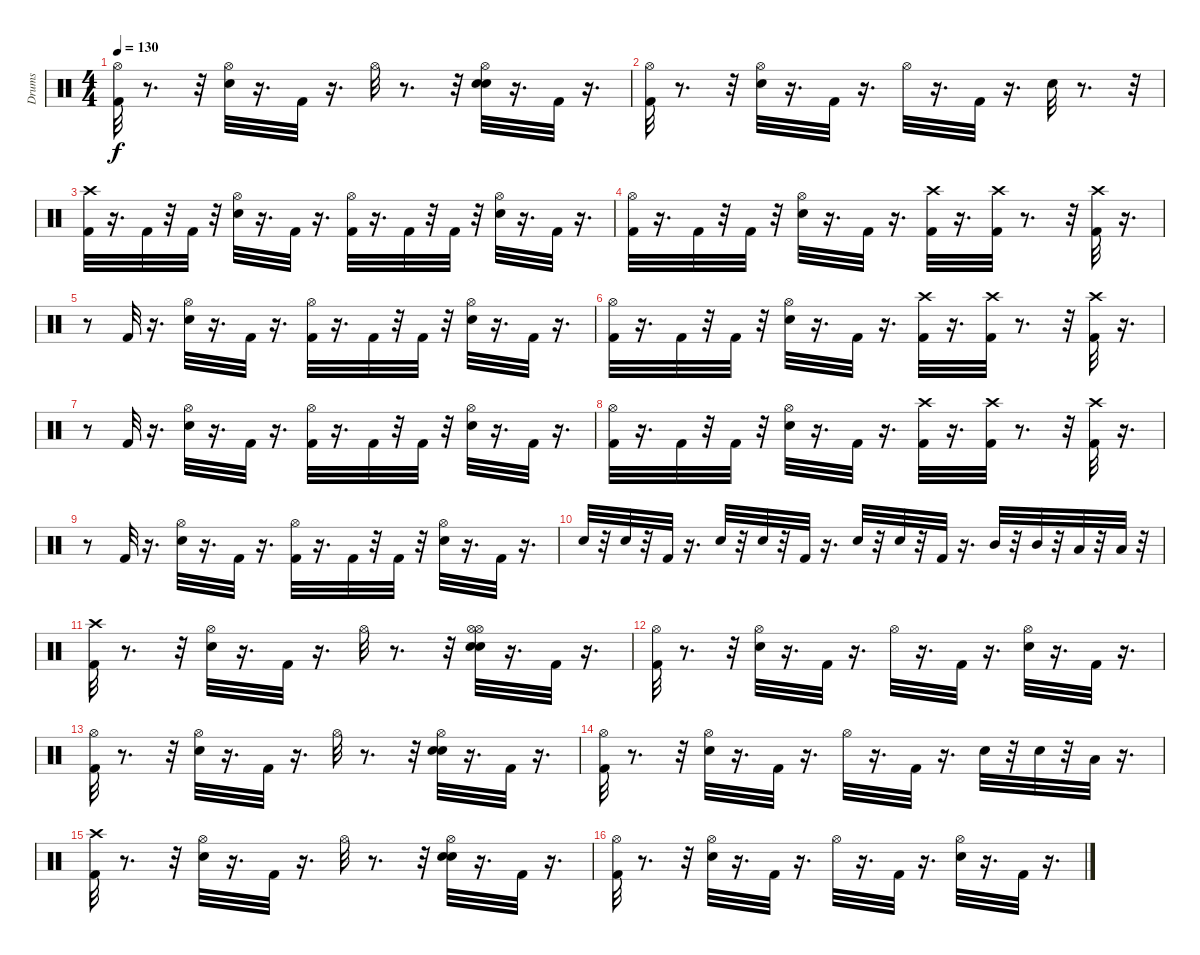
\track ("Drums" "Drums") {instrument percussion}
\staff {score}
\articulation defaults
\ts (4 4)
\tempo 130
\clef neutral
\ks c
("Hi-Hat (open)" "Kick (hit) 2").32{dy f} r.8{d} r.32 ("Snare (hit) 2" "Hi-Hat (open)").32 r.16{d} "Kick (hit) 2".32 r.16{d} "Hi-Hat (open)".32 r.8{d} r.32 ("Snare (hit) 2" "Hi-Hat (open)" "Snare (hit) 2").32 r.16{d} "Kick (hit) 2".32 r.16{d} |
("Hi-Hat (open)" "Kick (hit) 2").32 r.8{d} r.32 ("Snare (hit) 2" "Hi-Hat (open)").32 r.16{d} "Kick (hit) 2".32 r.16{d} "Hi-Hat (open)".32 r.16{d} "Kick (hit) 2".32 r.16{d} "Snare (hit) 2".32 r.8{d} r.32 |
("Kick (hit) 2" "Crash high (hit)").32 r.16{d} "Kick (hit) 2".32 r.32 "Kick (hit) 2".32 r.32 ("Snare (hit) 2" "Hi-Hat (open)").32 r.16{d} "Kick (hit) 2".32 r.16{d} ("Kick (hit) 2" "Hi-Hat (open)").32 r.16{d} "Kick (hit) 2".32 r.32 "Kick (hit) 2".32 r.32 ("Snare (hit) 2" "Hi-Hat (open)").32 r.16{d} "Kick (hit) 2".32 r.16{d} |
("Kick (hit) 2" "Hi-Hat (open)").32 r.16{d} "Kick (hit) 2".32 r.32 "Kick (hit) 2".32 r.32 ("Snare (hit) 2" "Hi-Hat (open)").32 r.16{d} "Kick (hit) 2".32 r.16{d} ("Crash high (hit)" "Kick (hit) 2").32 r.16{d} ("Crash high (hit)" "Kick (hit) 2").32 r.8{d} r.32 ("Kick (hit) 2" "Crash high (hit)").32 r.16{d} |
r.8 "Kick (hit) 2".32 r.16{d} ("Snare (hit) 2" "Hi-Hat (open)").32 r.16{d} "Kick (hit) 2".32 r.16{d} ("Kick (hit) 2" "Hi-Hat (open)").32 r.16{d} "Kick (hit) 2".32 r.32 "Kick (hit) 2".32 r.32 ("Snare (hit) 2" "Hi-Hat (open)").32 r.16{d} "Kick (hit) 2".32 r.16{d} |
("Kick (hit) 2" "Hi-Hat (open)").32 r.16{d} "Kick (hit) 2".32 r.32 "Kick (hit) 2".32 r.32 ("Hi-Hat (open)" "Snare (hit) 2").32 r.16{d} "Kick (hit) 2".32 r.16{d} ("Crash high (hit)" "Kick (hit) 2").32 r.16{d} ("Crash high (hit)" "Kick (hit) 2").32 r.8{d} r.32 ("Kick (hit) 2" "Crash high (hit)").32 r.16{d} |
r.8 "Kick (hit) 2".32 r.16{d} ("Snare (hit) 2" "Hi-Hat (open)").32 r.16{d} "Kick (hit) 2".32 r.16{d} ("Kick (hit) 2" "Hi-Hat (open)").32 r.16{d} "Kick (hit) 2".32 r.32 "Kick (hit) 2".32 r.32 ("Snare (hit) 2" "Hi-Hat (open)").32 r.16{d} "Kick (hit) 2".32 r.16{d} |
("Kick (hit) 2" "Hi-Hat (open)").32 r.16{d} "Kick (hit) 2".32 r.32 "Kick (hit) 2".32 r.32 ("Snare (hit) 2" "Hi-Hat (open)").32 r.16{d} "Kick (hit) 2".32 r.16{d} ("Crash high (hit)" "Kick (hit) 2").32 r.16{d} ("Crash high (hit)" "Kick (hit) 2").32 r.8{d} r.32 ("Kick (hit) 2" "Crash high (hit)").32 r.16{d} |
r.8 "Kick (hit) 2".32 r.16{d} ("Snare (hit) 2" "Hi-Hat (open)").32 r.16{d} "Kick (hit) 2".32 r.16{d} ("Kick (hit) 2" "Hi-Hat (open)").32 r.16{d} "Kick (hit) 2".32 r.32 "Kick (hit) 2".32 r.32 ("Snare (hit) 2" "Hi-Hat (open)").32 r.16{d} "Kick (hit) 2".32 r.16{d} |
"Snare (hit) 2".32 r.32 "Snare (hit) 2".32 r.32 "Kick (hit) 2".32 r.16{d} "Snare (hit) 2".32 r.32 "Snare (hit) 2".32 r.32 "Kick (hit) 2".32 r.16{d} "Snare (hit) 2".32 r.32 "Snare (hit) 2".32 r.32 "Kick (hit) 2".32 r.16{d} "Mid Tom (hit)".32 r.32 "Mid Tom (hit)".32 r.32 "Low Tom (hit)".32 r.32 "Low Tom (hit)".32 r.32 |
("Kick (hit) 2" "Crash high (hit)").32 r.8{d} r.32 ("Snare (hit) 2" "Hi-Hat (open)").32 r.16{d} "Kick (hit) 2".32 r.16{d} "Hi-Hat (open)".32 r.8{d} r.32 ("Snare (hit) 2" "Hi-Hat (open)" "Snare (hit) 2" "Hi-Hat (open)").32 r.16{d} "Kick (hit) 2".32 r.16{d} |
("Kick (hit) 2" "Hi-Hat (open)").32 r.8{d} r.32 ("Snare (hit) 2" "Hi-Hat (open)").32 r.16{d} "Kick (hit) 2".32 r.16{d} "Hi-Hat (open)".32 r.16{d} "Kick (hit) 2".32 r.16{d} ("Snare (hit) 2" "Hi-Hat (open)").32 r.16{d} "Kick (hit) 2".32 r.16{d} |
("Hi-Hat (open)" "Kick (hit) 2").32 r.8{d} r.32 ("Snare (hit) 2" "Hi-Hat (open)").32 r.16{d} "Kick (hit) 2".32 r.16{d} "Hi-Hat (open)".32 r.8{d} r.32 ("Snare (hit) 2" "Hi-Hat (open)" "Snare (hit) 2").32 r.16{d} "Kick (hit) 2".32 r.16{d} |
("Kick (hit) 2" "Hi-Hat (open)").32 r.8{d} r.32 ("Snare (hit) 2" "Hi-Hat (open)").32 r.16{d} "Kick (hit) 2".32 r.16{d} "Hi-Hat (open)".32 r.16{d} "Kick (hit) 2".32 r.16{d} "Snare (hit) 2".32 r.32 "Snare (hit) 2".32 r.32 "Low Floor Tom (hit)".32 r.16{d} |
("Kick (hit) 2" "Crash high (hit)").32 r.8{d} r.32 ("Snare (hit) 2" "Hi-Hat (open)").32 r.16{d} "Kick (hit) 2".32 r.16{d} "Hi-Hat (open)".32 r.8{d} r.32 ("Snare (hit) 2" "Snare (hit) 2" "Hi-Hat (open)").32 r.16{d} "Kick (hit) 2".32 r.16{d} |
("Kick (hit) 2" "Hi-Hat (open)").32 r.8{d} r.32 ("Snare (hit) 2" "Hi-Hat (open)").32 r.16{d} "Kick (hit) 2".32 r.16{d} "Hi-Hat (open)".32 r.16{d} "Kick (hit) 2".32 r.16{d} ("Hi-Hat (open)" "Snare (hit) 2").32 r.16{d} "Kick (hit) 2".32 r.16{d}
